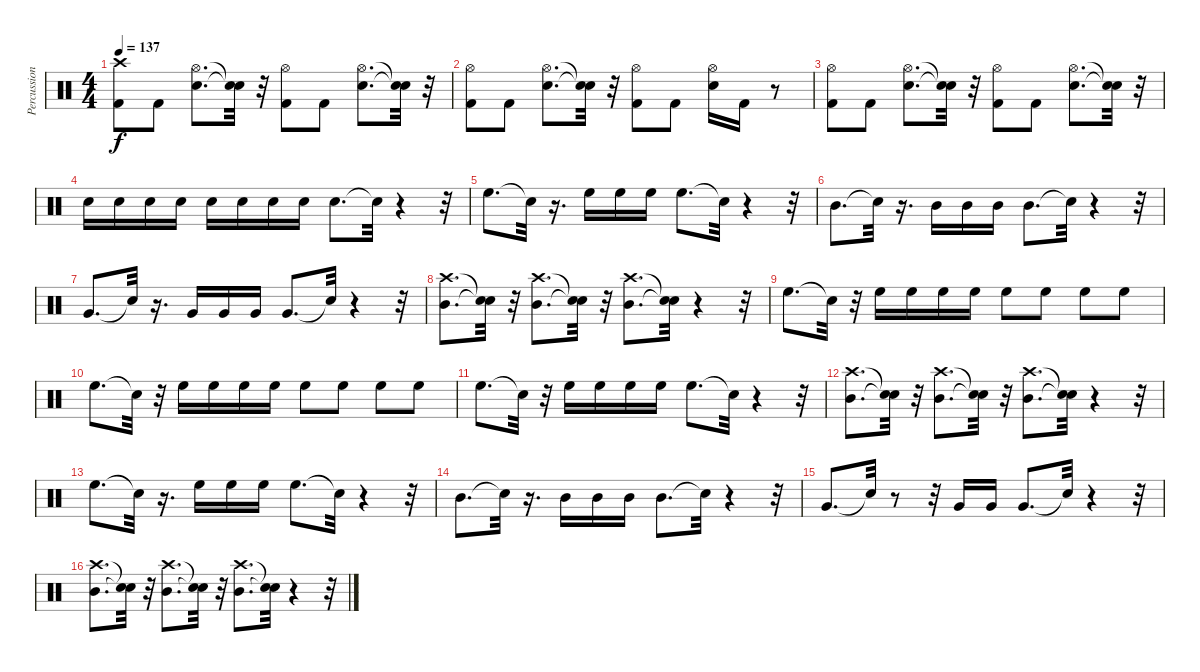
\track ("Percussion" "Percussion") {instrument percussion}
\staff {score}
\articulation defaults
\ts (4 4)
\tempo 137
\clef neutral
\ks c
("Crash high (hit)" "Kick (hit) 2").8{dy f} "Kick (hit) 2".8 ("Hi-Hat (open)" "Snare (hit) 2").8{d} ("Snare (hit)"{t} "Snare (hit)"{t}).32 r.32 ("Hi-Hat (open)" "Kick (hit) 2").8 "Kick (hit) 2".8 ("Hi-Hat (open)" "Snare (hit) 2").8{d} ("Snare (hit)"{t} "Snare (hit)"{t}).32 r.32 |
("Hi-Hat (open)" "Kick (hit) 2").8 "Kick (hit) 2".8 ("Hi-Hat (open)" "Snare (hit) 2").8{d} ("Snare (hit)"{t} "Snare (hit)"{t}).32 r.32 ("Hi-Hat (open)" "Kick (hit) 2").8 "Kick (hit) 2".8 ("Hi-Hat (open)" "Snare (hit) 2").16 "Kick (hit) 2".16 r.8 |
("Hi-Hat (open)" "Kick (hit) 2").8 "Kick (hit) 2".8 ("Hi-Hat (open)" "Snare (hit) 2").8{d} ("Snare (hit)"{t} "Snare (hit)"{t}).32 r.32 ("Hi-Hat (open)" "Kick (hit) 2").8 "Kick (hit) 2".8 ("Hi-Hat (open)" "Snare (hit) 2").8{d} ("Snare (hit)"{t} "Snare (hit)"{t}).32 r.32 |
"Snare (hit) 2".16 "Snare (hit) 2".16 "Snare (hit) 2".16 "Snare (hit) 2".16 "Snare (hit) 2".16 "Snare (hit) 2".16 "Snare (hit) 2".16 "Snare (hit) 2".16 "Snare (hit) 2".8{d} "Snare (hit)"{t}.32 r.4 r.32 |
"High Floor Tom (hit)".8{d} "Snare (hit)"{t}.32 r.16{d} "High Floor Tom (hit)".16 "High Floor Tom (hit)".16 "High Floor Tom (hit)".16 "High Floor Tom (hit)".8{d} "Snare (hit)"{t}.32 r.4 r.32 |
"Mid Tom (hit)".8{d} "Snare (hit)"{t}.32 r.16{d} "Mid Tom (hit)".16 "Mid Tom (hit)".16 "Mid Tom (hit)".16 "Mid Tom (hit)".8{d} "Snare (hit)"{t}.32 r.4 r.32 |
"Very Low Tom (hit)".8{d} "Snare (hit)"{t}.32 r.16{d} "Very Low Tom (hit)".16 "Very Low Tom (hit)".16 "Very Low Tom (hit)".16 "Very Low Tom (hit)".8{d} "Snare (hit)"{t}.32 r.4 r.32 |
("Mid Tom (hit)" "Crash high (hit)").8{d} ("Snare (hit)"{t} "Snare (hit)"{t}).32 r.32 ("Mid Tom (hit)" "Crash high (hit)").8{d} ("Snare (hit)"{t} "Snare (hit)"{t}).32 r.32 ("Mid Tom (hit)" "Crash high (hit)").8{d} ("Snare (hit)"{t} "Snare (hit)"{t}).32 r.4 r.32 |
"High Floor Tom (hit)".8{d} "Snare (hit)"{t}.32 r.32 "High Floor Tom (hit)".16 "High Floor Tom (hit)".16 "High Floor Tom (hit)".16 "High Floor Tom (hit)".16 "High Floor Tom (hit)".8 "High Floor Tom (hit)".8 "High Floor Tom (hit)".8 "High Floor Tom (hit)".8 |
"High Floor Tom (hit)".8{d} "Snare (hit)"{t}.32 r.32 "High Floor Tom (hit)".16 "High Floor Tom (hit)".16 "High Floor Tom (hit)".16 "High Floor Tom (hit)".16 "High Floor Tom (hit)".8 "High Floor Tom (hit)".8 "High Floor Tom (hit)".8 "High Floor Tom (hit)".8 |
"High Floor Tom (hit)".8{d} "Snare (hit)"{t}.32 r.32 "High Floor Tom (hit)".16 "High Floor Tom (hit)".16 "High Floor Tom (hit)".16 "High Floor Tom (hit)".16 "High Floor Tom (hit)".8{d} "Snare (hit)"{t}.32 r.4 r.32 |
("Mid Tom (hit)" "Crash high (hit)").8{d} ("Snare (hit)"{t} "Snare (hit)"{t}).32 r.32 ("Mid Tom (hit)" "Crash high (hit)").8{d} ("Snare (hit)"{t} "Snare (hit)"{t}).32 r.32 ("Mid Tom (hit)" "Crash high (hit)").8{d} ("Snare (hit)"{t} "Snare (hit)"{t}).32 r.4 r.32 |
"High Floor Tom (hit)".8{d} "Snare (hit)"{t}.32 r.16{d} "High Floor Tom (hit)".16 "High Floor Tom (hit)".16 "High Floor Tom (hit)".16 "High Floor Tom (hit)".8{d} "Snare (hit)"{t}.32 r.4 r.32 |
"Mid Tom (hit)".8{d} "Snare (hit)"{t}.32 r.16{d} "Mid Tom (hit)".16 "Mid Tom (hit)".16 "Mid Tom (hit)".16 "Mid Tom (hit)".8{d} "Snare (hit)"{t}.32 r.4 r.32 |
"Very Low Tom (hit)".8{d} "Snare (hit)"{t}.32 r.8 r.32 "Very Low Tom (hit)".16 "Very Low Tom (hit)".16 "Very Low Tom (hit)".8{d} "Snare (hit)"{t}.32 r.4 r.32 |
("Mid Tom (hit)" "Crash high (hit)").8{d} ("Snare (hit)"{t} "Snare (hit)"{t}).32 r.32 ("Mid Tom (hit)" "Crash high (hit)").8{d} ("Snare (hit)"{t} "Snare (hit)"{t}).32 r.32 ("Mid Tom (hit)" "Crash high (hit)").8{d} ("Snare (hit)"{t} "Snare (hit)"{t}).32 r.4 r.32
